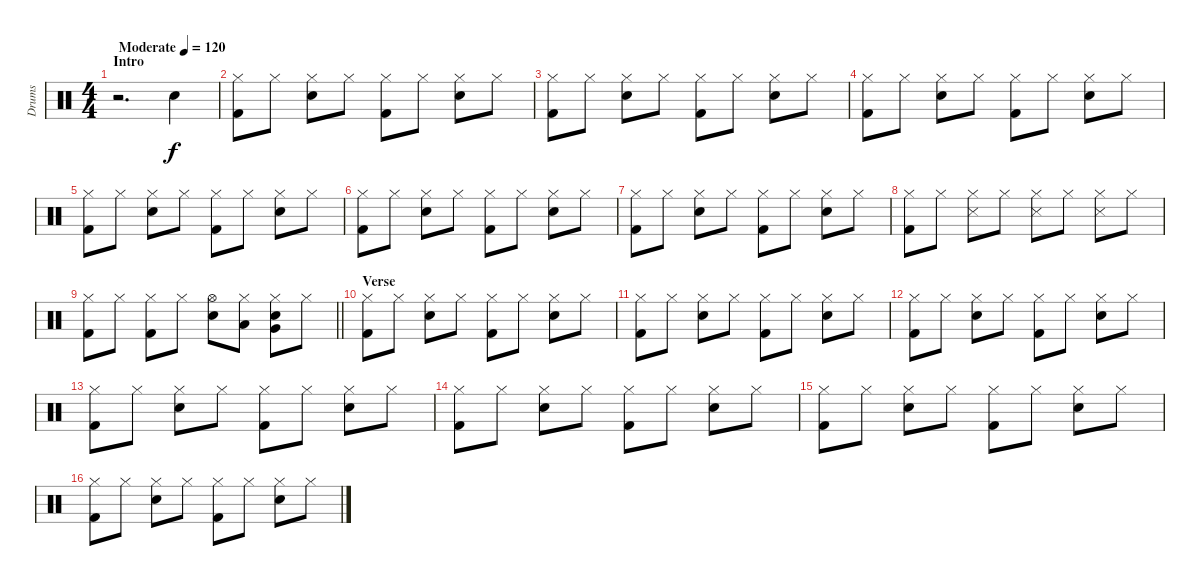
\track ("Drums" "Drums") {instrument percussion}
\staff {score}
\articulation defaults
\ts (4 4)
\section ("" "Intro")
\tempo (120 "Moderate")
\clef neutral
\ks c
r.2{d dy f} "Snare (hit) 2".4 |
("Hi-Hat (closed)" "Kick (hit) 2").8 "Hi-Hat (closed)".8 ("Hi-Hat (closed)" "Snare (hit) 2").8 "Hi-Hat (closed)".8 ("Hi-Hat (closed)" "Kick (hit) 2").8 "Hi-Hat (closed)".8 ("Hi-Hat (closed)" "Snare (hit) 2").8 "Hi-Hat (closed)".8 |
("Hi-Hat (closed)" "Kick (hit) 2").8 "Hi-Hat (closed)".8 ("Hi-Hat (closed)" "Snare (hit) 2").8 "Hi-Hat (closed)".8 ("Hi-Hat (closed)" "Kick (hit) 2").8 "Hi-Hat (closed)".8 ("Hi-Hat (closed)" "Snare (hit) 2").8 "Hi-Hat (closed)".8 |
("Hi-Hat (closed)" "Kick (hit) 2").8 "Hi-Hat (closed)".8 ("Hi-Hat (closed)" "Snare (hit) 2").8 "Hi-Hat (closed)".8 ("Hi-Hat (closed)" "Kick (hit) 2").8 "Hi-Hat (closed)".8 ("Hi-Hat (closed)" "Snare (hit) 2").8 "Hi-Hat (closed)".8 |
("Hi-Hat (closed)" "Kick (hit) 2").8 "Hi-Hat (closed)".8 ("Hi-Hat (closed)" "Snare (hit) 2").8 "Hi-Hat (closed)".8 ("Hi-Hat (closed)" "Kick (hit) 2").8 "Hi-Hat (closed)".8 ("Hi-Hat (closed)" "Snare (hit) 2").8 "Hi-Hat (closed)".8 |
("Hi-Hat (closed)" "Kick (hit) 2").8 "Hi-Hat (closed)".8 ("Hi-Hat (closed)" "Snare (hit) 2").8 "Hi-Hat (closed)".8 ("Hi-Hat (closed)" "Kick (hit) 2").8 "Hi-Hat (closed)".8 ("Hi-Hat (closed)" "Snare (hit) 2").8 "Hi-Hat (closed)".8 |
("Hi-Hat (closed)" "Kick (hit) 2").8 "Hi-Hat (closed)".8 ("Hi-Hat (closed)" "Snare (hit) 2").8 "Hi-Hat (closed)".8 ("Hi-Hat (closed)" "Kick (hit) 2").8 "Hi-Hat (closed)".8 ("Hi-Hat (closed)" "Snare (hit) 2").8 "Hi-Hat (closed)".8 |
("Hi-Hat (closed)" "Kick (hit) 2").8 "Hi-Hat (closed)".8 ("Hi-Hat (closed)" "Snare (side stick) 3").8 "Hi-Hat (closed)".8 ("Hi-Hat (closed)" "Snare (side stick) 3").8 "Hi-Hat (closed)".8 ("Hi-Hat (closed)" "Snare (side stick) 3").8 "Hi-Hat (closed)".8 |
\barLineRight lightlight
("Hi-Hat (closed)" "Kick (hit) 2").8 "Hi-Hat (closed)".8 ("Hi-Hat (closed)" "Kick (hit) 2").8 "Hi-Hat (closed)".8 ("Hi-Hat (open)" "Snare (hit) 2").8 ("Hi-Hat (closed)" "Low Tom (hit)").8 ("Hi-Hat (closed)" "Snare (hit) 2" "Very Low Tom (hit)").8 "Hi-Hat (closed)".8 |
\section ("" "Verse")
("Hi-Hat (closed)" "Kick (hit) 2").8 "Hi-Hat (closed)".8 ("Hi-Hat (closed)" "Snare (hit) 2").8 "Hi-Hat (closed)".8 ("Hi-Hat (closed)" "Kick (hit) 2").8 "Hi-Hat (closed)".8 ("Hi-Hat (closed)" "Snare (hit) 2").8 "Hi-Hat (closed)".8 |
("Hi-Hat (closed)" "Kick (hit) 2").8 "Hi-Hat (closed)".8 ("Hi-Hat (closed)" "Snare (hit) 2").8 "Hi-Hat (closed)".8 ("Hi-Hat (closed)" "Kick (hit) 2").8 "Hi-Hat (closed)".8 ("Hi-Hat (closed)" "Snare (hit) 2").8 "Hi-Hat (closed)".8 |
("Hi-Hat (closed)" "Kick (hit) 2").8 "Hi-Hat (closed)".8 ("Hi-Hat (closed)" "Snare (hit) 2").8 "Hi-Hat (closed)".8 ("Hi-Hat (closed)" "Kick (hit) 2").8 "Hi-Hat (closed)".8 ("Hi-Hat (closed)" "Snare (hit) 2").8 "Hi-Hat (closed)".8 |
("Hi-Hat (closed)" "Kick (hit) 2").8 "Hi-Hat (closed)".8 ("Hi-Hat (closed)" "Snare (hit) 2").8 "Hi-Hat (closed)".8 ("Hi-Hat (closed)" "Kick (hit) 2").8 "Hi-Hat (closed)".8 ("Hi-Hat (closed)" "Snare (hit) 2").8 "Hi-Hat (closed)".8 |
("Hi-Hat (closed)" "Kick (hit) 2").8 "Hi-Hat (closed)".8 ("Hi-Hat (closed)" "Snare (hit) 2").8 "Hi-Hat (closed)".8 ("Hi-Hat (closed)" "Kick (hit) 2").8 "Hi-Hat (closed)".8 ("Hi-Hat (closed)" "Snare (hit) 2").8 "Hi-Hat (closed)".8 |
("Hi-Hat (closed)" "Kick (hit) 2").8 "Hi-Hat (closed)".8 ("Hi-Hat (closed)" "Snare (hit) 2").8 "Hi-Hat (closed)".8 ("Hi-Hat (closed)" "Kick (hit) 2").8 "Hi-Hat (closed)".8 ("Hi-Hat (closed)" "Snare (hit) 2").8 "Hi-Hat (closed)".8 |
("Hi-Hat (closed)" "Kick (hit) 2").8 "Hi-Hat (closed)".8 ("Hi-Hat (closed)" "Snare (hit) 2").8 "Hi-Hat (closed)".8 ("Hi-Hat (closed)" "Kick (hit) 2").8 "Hi-Hat (closed)".8 ("Hi-Hat (closed)" "Snare (hit) 2").8 "Hi-Hat (closed)".8
